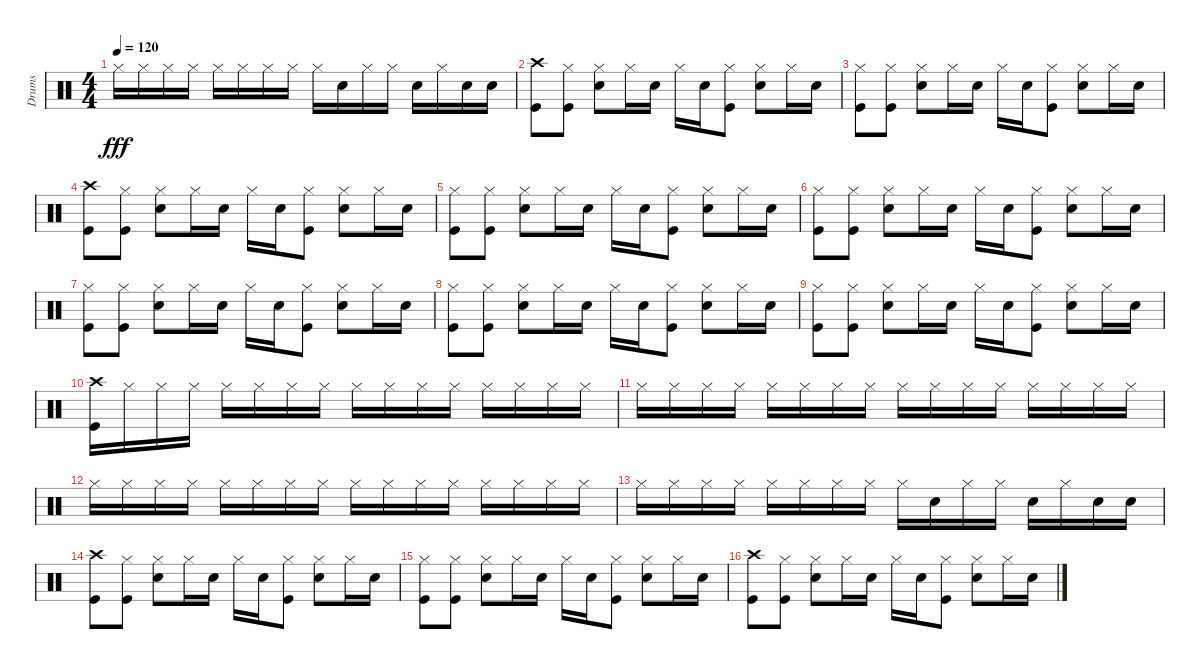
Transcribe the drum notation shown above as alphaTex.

\track ("Drums" "Drums") {instrument percussion}
\staff {score}
\articulation defaults
\ts (4 4)
\tempo 120
\clef neutral
\ks c "Hi-Hat (closed)".16{dy fff} "Hi-Hat (closed)".16 "Hi-Hat (closed)".16 "Hi-Hat (closed)".16 "Hi-Hat (closed)".16 "Hi-Hat (closed)".16 "Hi-Hat (closed)".16 "Hi-Hat (closed)".16 "Hi-Hat (closed)".16 "Snare (hit) 2".16 "Hi-Hat (closed)".16 "Hi-Hat (closed)".16 "Snare (hit) 2".16 "Hi-Hat (closed)".16 "Snare (hit) 2".16 "Snare (hit) 2".16
|
("Crash high (hit)" "Kick (hit)").8 ("Hi-Hat (closed)" "Kick (hit)").8 ("Hi-Hat (closed)" "Snare (hit) 2").8 "Hi-Hat (closed)".16 "Snare (hit) 2".16 "Hi-Hat (closed)".16 "Snare (hit) 2".16 ("Hi-Hat (closed)" "Kick (hit)").8 ("Hi-Hat (closed)" "Snare (hit) 2").8 "Hi-Hat (closed)".16 "Snare (hit) 2".16 |
("Hi-Hat (closed)" "Kick (hit)").8 ("Hi-Hat (closed)" "Kick (hit)").8 ("Hi-Hat (closed)" "Snare (hit) 2").8 "Hi-Hat (closed)".16 "Snare (hit) 2".16 "Hi-Hat (closed)".16 "Snare (hit) 2".16 ("Hi-Hat (closed)" "Kick (hit)").8 ("Hi-Hat (closed)" "Snare (hit) 2").8 "Hi-Hat (closed)".16 "Snare (hit) 2".16 |
("Crash high (hit)" "Kick (hit)").8 ("Hi-Hat (closed)" "Kick (hit)").8 ("Hi-Hat (closed)" "Snare (hit) 2").8 "Hi-Hat (closed)".16 "Snare (hit) 2".16 "Hi-Hat (closed)".16 "Snare (hit) 2".16 ("Hi-Hat (closed)" "Kick (hit)").8 ("Hi-Hat (closed)" "Snare (hit) 2").8 "Hi-Hat (closed)".16 "Snare (hit) 2".16 |
("Hi-Hat (closed)" "Kick (hit)").8 ("Hi-Hat (closed)" "Kick (hit)").8 ("Hi-Hat (closed)" "Snare (hit) 2").8 "Hi-Hat (closed)".16 "Snare (hit) 2".16 "Hi-Hat (closed)".16 "Snare (hit) 2".16 ("Hi-Hat (closed)" "Kick (hit)").8 ("Hi-Hat (closed)" "Snare (hit) 2").8 "Hi-Hat (closed)".16 "Snare (hit) 2".16 |
("Hi-Hat (closed)" "Kick (hit)").8 ("Hi-Hat (closed)" "Kick (hit)").8 ("Hi-Hat (closed)" "Snare (hit) 2").8 "Hi-Hat (closed)".16 "Snare (hit) 2".16 "Hi-Hat (closed)".16 "Snare (hit) 2".16 ("Hi-Hat (closed)" "Kick (hit)").8 ("Hi-Hat (closed)" "Snare (hit) 2").8 "Hi-Hat (closed)".16 "Snare (hit) 2".16 |
("Hi-Hat (closed)" "Kick (hit)").8 ("Hi-Hat (closed)" "Kick (hit)").8 ("Hi-Hat (closed)" "Snare (hit) 2").8 "Hi-Hat (closed)".16 "Snare (hit) 2".16 "Hi-Hat (closed)".16 "Snare (hit) 2".16 ("Hi-Hat (closed)" "Kick (hit)").8 ("Hi-Hat (closed)" "Snare (hit) 2").8 "Hi-Hat (closed)".16 "Snare (hit) 2".16 |
("Hi-Hat (closed)" "Kick (hit)").8 ("Hi-Hat (closed)" "Kick (hit)").8 ("Hi-Hat (closed)" "Snare (hit) 2").8 "Hi-Hat (closed)".16 "Snare (hit) 2".16 "Hi-Hat (closed)".16 "Snare (hit) 2".16 ("Hi-Hat (closed)" "Kick (hit)").8 ("Hi-Hat (closed)" "Snare (hit) 2").8 "Hi-Hat (closed)".16 "Snare (hit) 2".16 |
("Hi-Hat (closed)" "Kick (hit)").8 ("Hi-Hat (closed)" "Kick (hit)").8 ("Hi-Hat (closed)" "Snare (hit) 2").8 "Hi-Hat (closed)".16 "Snare (hit) 2".16 "Hi-Hat (closed)".16 "Snare (hit) 2".16 ("Hi-Hat (closed)" "Kick (hit)").8 ("Hi-Hat (closed)" "Snare (hit) 2").8 "Hi-Hat (closed)".16 "Snare (hit) 2".16 |
("Crash high (hit)" "Kick (hit)").16 "Hi-Hat (closed)".16 "Hi-Hat (closed)".16 "Hi-Hat (closed)".16 "Hi-Hat (closed)".16 "Hi-Hat (closed)".16 "Hi-Hat (closed)".16 "Hi-Hat (closed)".16 "Hi-Hat (closed)".16 "Hi-Hat (closed)".16 "Hi-Hat (closed)".16 "Hi-Hat (closed)".16 "Hi-Hat (closed)".16 "Hi-Hat (closed)".16 "Hi-Hat (closed)".16 "Hi-Hat (closed)".16 |
"Hi-Hat (closed)".16 "Hi-Hat (closed)".16 "Hi-Hat (closed)".16 "Hi-Hat (closed)".16 "Hi-Hat (closed)".16 "Hi-Hat (closed)".16 "Hi-Hat (closed)".16 "Hi-Hat (closed)".16 "Hi-Hat (closed)".16 "Hi-Hat (closed)".16 "Hi-Hat (closed)".16 "Hi-Hat (closed)".16 "Hi-Hat (closed)".16 "Hi-Hat (closed)".16 "Hi-Hat (closed)".16 "Hi-Hat (closed)".16 |
"Hi-Hat (closed)".16 "Hi-Hat (closed)".16 "Hi-Hat (closed)".16 "Hi-Hat (closed)".16 "Hi-Hat (closed)".16 "Hi-Hat (closed)".16 "Hi-Hat (closed)".16 "Hi-Hat (closed)".16 "Hi-Hat (closed)".16 "Hi-Hat (closed)".16 "Hi-Hat (closed)".16 "Hi-Hat (closed)".16 "Hi-Hat (closed)".16 "Hi-Hat (closed)".16 "Hi-Hat (closed)".16 "Hi-Hat (closed)".16 |
"Hi-Hat (closed)".16 "Hi-Hat (closed)".16 "Hi-Hat (closed)".16 "Hi-Hat (closed)".16 "Hi-Hat (closed)".16 "Hi-Hat (closed)".16 "Hi-Hat (closed)".16 "Hi-Hat (closed)".16 "Hi-Hat (closed)".16 "Snare (hit) 2".16 "Hi-Hat (closed)".16 "Hi-Hat (closed)".16 "Snare (hit) 2".16 "Hi-Hat (closed)".16 "Snare (hit) 2".16 "Snare (hit) 2".16 |
("Crash high (hit)" "Kick (hit)").8 ("Hi-Hat (closed)" "Kick (hit)").8 ("Hi-Hat (closed)" "Snare (hit) 2").8 "Hi-Hat (closed)".16 "Snare (hit) 2".16 "Hi-Hat (closed)".16 "Snare (hit) 2".16 ("Hi-Hat (closed)" "Kick (hit)").8 ("Hi-Hat (closed)" "Snare (hit) 2").8 "Hi-Hat (closed)".16 "Snare (hit) 2".16 |
("Hi-Hat (closed)" "Kick (hit)").8 ("Hi-Hat (closed)" "Kick (hit)").8 ("Hi-Hat (closed)" "Snare (hit) 2").8 "Hi-Hat (closed)".16 "Snare (hit) 2".16 "Hi-Hat (closed)".16 "Snare (hit) 2".16 ("Hi-Hat (closed)" "Kick (hit)").8 ("Hi-Hat (closed)" "Snare (hit) 2").8 "Hi-Hat (closed)".16 "Snare (hit) 2".16 |
("Crash high (hit)" "Kick (hit)").8 ("Hi-Hat (closed)" "Kick (hit)").8 ("Hi-Hat (closed)" "Snare (hit) 2").8 "Hi-Hat (closed)".16 "Snare (hit) 2".16 "Hi-Hat (closed)".16 "Snare (hit) 2".16 ("Hi-Hat (closed)" "Kick (hit)").8 ("Hi-Hat (closed)" "Snare (hit) 2").8 "Hi-Hat (closed)".16 "Snare (hit) 2".16
